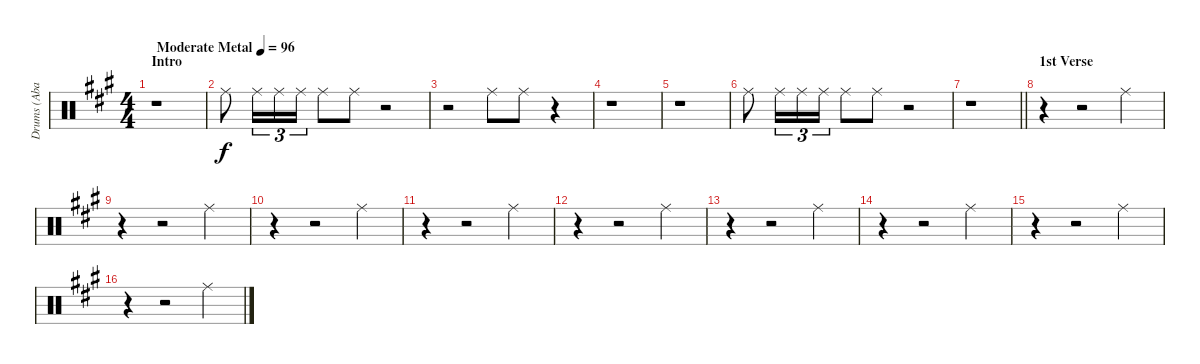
\track ("Drums (Abaddon)" "Drums (Aba") {instrument percussion}
\staff {score}
\articulation defaults
\ts (4 4)
\section ("" "Intro")
\tempo (96 "Moderate Metal")
\clef neutral
\ks f#minor
r.1{dy f} |
"Ride (middle)".8 "Ride (middle)".16{tu (3 2)} "Ride (middle)".16{tu (3 2)} "Ride (middle)".16{tu (3 2)} "Ride (middle)".8 "Ride (middle)".8 r.2 |
r.2 "Ride (middle)".8 "Ride (middle)".8 r.4 |
r.1 |
r.1 |
"Ride (middle)".8 "Ride (middle)".16{tu (3 2)} "Ride (middle)".16{tu (3 2)} "Ride (middle)".16{tu (3 2)} "Ride (middle)".8 "Ride (middle)".8 r.2 |
\barLineRight lightlight
r.1 |
\section ("" "1st Verse")
r.4 r.2 "Ride (middle)".4 |
r.4 r.2 "Ride (middle)".4 |
r.4 r.2 "Ride (middle)".4 |
r.4 r.2 "Ride (middle)".4 |
r.4 r.2 "Ride (middle)".4 |
r.4 r.2 "Ride (middle)".4 |
r.4 r.2 "Ride (middle)".4 |
r.4 r.2 "Ride (middle)".4 |
r.4 r.2 "Ride (middle)".4
